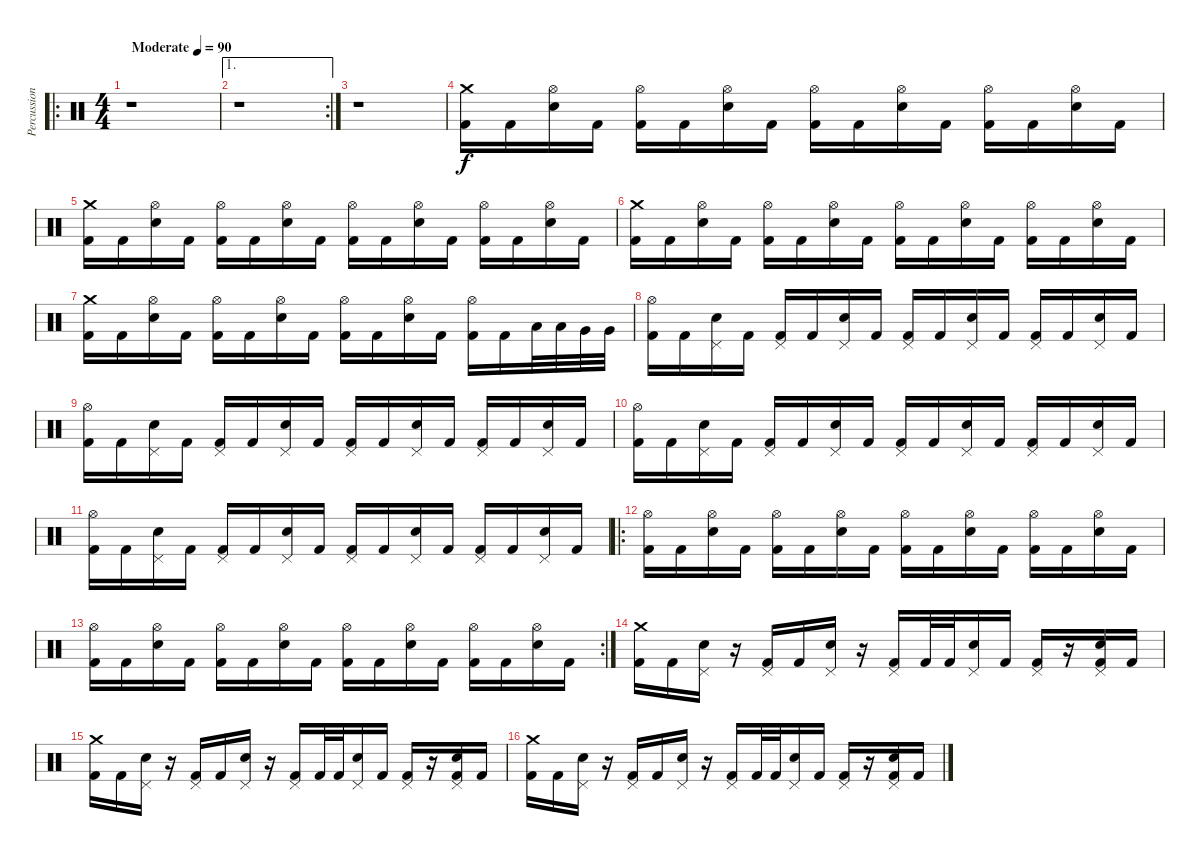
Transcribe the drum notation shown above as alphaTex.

\track ("Percussion" "Percussion") {instrument percussion}
\staff {score}
\articulation defaults
\ro
\ts (4 4)
\tempo (90 "Moderate")
\clef neutral
\ks c
r.1{dy f} |
\ae 1
\rc 2
r.1 |
r.1 |
("Crash medium (hit)" "Kick (hit) 2").16 "Kick (hit) 2".16 ("Hi-Hat (open)" "Electric Snare (hit)").16 "Kick (hit) 2".16 ("Hi-Hat (open)" "Kick (hit) 2").16 "Kick (hit) 2".16 ("Hi-Hat (open)" "Electric Snare (hit)").16 "Kick (hit) 2".16 ("Hi-Hat (open)" "Kick (hit) 2").16 "Kick (hit) 2".16 ("Hi-Hat (open)" "Electric Snare (hit)").16 "Kick (hit) 2".16 ("Hi-Hat (open)" "Kick (hit) 2").16 "Kick (hit) 2".16 ("Hi-Hat (open)" "Electric Snare (hit)").16 "Kick (hit) 2".16 |
("Crash medium (hit)" "Kick (hit) 2").16 "Kick (hit) 2".16 ("Hi-Hat (open)" "Electric Snare (hit)").16 "Kick (hit) 2".16 ("Hi-Hat (open)" "Kick (hit) 2").16 "Kick (hit) 2".16 ("Hi-Hat (open)" "Electric Snare (hit)").16 "Kick (hit) 2".16 ("Hi-Hat (open)" "Kick (hit) 2").16 "Kick (hit) 2".16 ("Hi-Hat (open)" "Electric Snare (hit)").16 "Kick (hit) 2".16 ("Hi-Hat (open)" "Kick (hit) 2").16 "Kick (hit) 2".16 ("Hi-Hat (open)" "Electric Snare (hit)").16 "Kick (hit) 2".16 |
("Crash medium (hit)" "Kick (hit) 2").16 "Kick (hit) 2".16 ("Hi-Hat (open)" "Electric Snare (hit)").16 "Kick (hit) 2".16 ("Hi-Hat (open)" "Kick (hit) 2").16 "Kick (hit) 2".16 ("Hi-Hat (open)" "Electric Snare (hit)").16 "Kick (hit) 2".16 ("Hi-Hat (open)" "Kick (hit) 2").16 "Kick (hit) 2".16 ("Hi-Hat (open)" "Electric Snare (hit)").16 "Kick (hit) 2".16 ("Hi-Hat (open)" "Kick (hit) 2").16 "Kick (hit) 2".16 ("Hi-Hat (open)" "Electric Snare (hit)").16 "Kick (hit) 2".16 |
("Crash medium (hit)" "Kick (hit) 2").16 "Kick (hit) 2".16 ("Hi-Hat (open)" "Electric Snare (hit)").16 "Kick (hit) 2".16 ("Hi-Hat (open)" "Kick (hit) 2").16 "Kick (hit) 2".16 ("Hi-Hat (open)" "Electric Snare (hit)").16 "Kick (hit) 2".16 ("Hi-Hat (open)" "Kick (hit) 2").16 "Kick (hit) 2".16 ("Hi-Hat (open)" "Electric Snare (hit)").16 "Kick (hit) 2".16 ("Hi-Hat (open)" "Kick (hit) 2").16 "Kick (hit) 2".16 "Low Tom (hit)".32 "Low Tom (hit)".32 "Very Low Tom (hit)".32 "Very Low Tom (hit)".32 |
("Hi-Hat (open)" "Kick (hit) 2").16 "Kick (hit) 2".16 ("Pedal Hi-Hat (hit)" "Electric Snare (hit)").16 "Kick (hit) 2".16 ("Pedal Hi-Hat (hit)" "Kick (hit) 2").16 "Kick (hit) 2".16 ("Pedal Hi-Hat (hit)" "Electric Snare (hit)").16 "Kick (hit) 2".16 ("Pedal Hi-Hat (hit)" "Kick (hit) 2").16 "Kick (hit) 2".16 ("Pedal Hi-Hat (hit)" "Electric Snare (hit)").16 "Kick (hit) 2".16 ("Pedal Hi-Hat (hit)" "Kick (hit) 2").16 "Kick (hit) 2".16 ("Pedal Hi-Hat (hit)" "Electric Snare (hit)").16 "Kick (hit) 2".16 |
("Hi-Hat (open)" "Kick (hit) 2").16 "Kick (hit) 2".16 ("Pedal Hi-Hat (hit)" "Electric Snare (hit)").16 "Kick (hit) 2".16 ("Pedal Hi-Hat (hit)" "Kick (hit) 2").16 "Kick (hit) 2".16 ("Pedal Hi-Hat (hit)" "Electric Snare (hit)").16 "Kick (hit) 2".16 ("Pedal Hi-Hat (hit)" "Kick (hit) 2").16 "Kick (hit) 2".16 ("Pedal Hi-Hat (hit)" "Electric Snare (hit)").16 "Kick (hit) 2".16 ("Pedal Hi-Hat (hit)" "Kick (hit) 2").16 "Kick (hit) 2".16 ("Pedal Hi-Hat (hit)" "Electric Snare (hit)").16 "Kick (hit) 2".16 |
("Hi-Hat (open)" "Kick (hit) 2").16 "Kick (hit) 2".16 ("Pedal Hi-Hat (hit)" "Electric Snare (hit)").16 "Kick (hit) 2".16 ("Pedal Hi-Hat (hit)" "Kick (hit) 2").16 "Kick (hit) 2".16 ("Pedal Hi-Hat (hit)" "Electric Snare (hit)").16 "Kick (hit) 2".16 ("Pedal Hi-Hat (hit)" "Kick (hit) 2").16 "Kick (hit) 2".16 ("Pedal Hi-Hat (hit)" "Electric Snare (hit)").16 "Kick (hit) 2".16 ("Pedal Hi-Hat (hit)" "Kick (hit) 2").16 "Kick (hit) 2".16 ("Pedal Hi-Hat (hit)" "Electric Snare (hit)").16 "Kick (hit) 2".16 |
("Hi-Hat (open)" "Kick (hit) 2").16 "Kick (hit) 2".16 ("Pedal Hi-Hat (hit)" "Electric Snare (hit)").16 "Kick (hit) 2".16 ("Pedal Hi-Hat (hit)" "Kick (hit) 2").16 "Kick (hit) 2".16 ("Pedal Hi-Hat (hit)" "Electric Snare (hit)").16 "Kick (hit) 2".16 ("Pedal Hi-Hat (hit)" "Kick (hit) 2").16 "Kick (hit) 2".16 ("Pedal Hi-Hat (hit)" "Electric Snare (hit)").16 "Kick (hit) 2".16 ("Pedal Hi-Hat (hit)" "Kick (hit) 2").16 "Kick (hit) 2".16 ("Pedal Hi-Hat (hit)" "Electric Snare (hit)").16 "Kick (hit) 2".16 |
\ro
("Hi-Hat (open)" "Kick (hit) 2").16 "Kick (hit) 2".16 ("Hi-Hat (open)" "Electric Snare (hit)").16 "Kick (hit) 2".16 ("Hi-Hat (open)" "Kick (hit) 2").16 "Kick (hit) 2".16 ("Hi-Hat (open)" "Electric Snare (hit)").16 "Kick (hit) 2".16 ("Hi-Hat (open)" "Kick (hit) 2").16 "Kick (hit) 2".16 ("Hi-Hat (open)" "Electric Snare (hit)").16 "Kick (hit) 2".16 ("Hi-Hat (open)" "Kick (hit) 2").16 "Kick (hit) 2".16 ("Hi-Hat (open)" "Electric Snare (hit)").16 "Kick (hit) 2".16 |
\rc 2
("Hi-Hat (open)" "Kick (hit) 2").16 "Kick (hit) 2".16 ("Hi-Hat (open)" "Electric Snare (hit)").16 "Kick (hit) 2".16 ("Hi-Hat (open)" "Kick (hit) 2").16 "Kick (hit) 2".16 ("Hi-Hat (open)" "Electric Snare (hit)").16 "Kick (hit) 2".16 ("Hi-Hat (open)" "Kick (hit) 2").16 "Kick (hit) 2".16 ("Hi-Hat (open)" "Electric Snare (hit)").16 "Kick (hit) 2".16 ("Hi-Hat (open)" "Kick (hit) 2").16 "Kick (hit) 2".16 ("Hi-Hat (open)" "Electric Snare (hit)").16 "Kick (hit) 2".16 |
("Crash medium (hit)" "Kick (hit) 2").16 "Kick (hit) 2".16 ("Pedal Hi-Hat (hit)" "Electric Snare (hit)").16 r.16 ("Pedal Hi-Hat (hit)" "Kick (hit) 2").16 "Kick (hit) 2".16 ("Pedal Hi-Hat (hit)" "Electric Snare (hit)").16 r.16 ("Pedal Hi-Hat (hit)" "Kick (hit) 2").16 "Kick (hit) 2".32 "Kick (hit) 2".32 ("Pedal Hi-Hat (hit)" "Electric Snare (hit)").16 "Kick (hit) 2".16 ("Pedal Hi-Hat (hit)" "Kick (hit) 2").16 r.16 ("Pedal Hi-Hat (hit)" "Electric Snare (hit)" "Kick (hit) 2").16 "Kick (hit) 2".16 |
("Crash medium (hit)" "Kick (hit) 2").16 "Kick (hit) 2".16 ("Pedal Hi-Hat (hit)" "Electric Snare (hit)").16 r.16 ("Pedal Hi-Hat (hit)" "Kick (hit) 2").16 "Kick (hit) 2".16 ("Pedal Hi-Hat (hit)" "Electric Snare (hit)").16 r.16 ("Pedal Hi-Hat (hit)" "Kick (hit) 2").16 "Kick (hit) 2".32 "Kick (hit) 2".32 ("Pedal Hi-Hat (hit)" "Electric Snare (hit)").16 "Kick (hit) 2".16 ("Pedal Hi-Hat (hit)" "Kick (hit) 2").16 r.16 ("Pedal Hi-Hat (hit)" "Electric Snare (hit)" "Kick (hit) 2").16 "Kick (hit) 2".16 |
("Crash medium (hit)" "Kick (hit) 2").16 "Kick (hit) 2".16 ("Pedal Hi-Hat (hit)" "Electric Snare (hit)").16 r.16 ("Pedal Hi-Hat (hit)" "Kick (hit) 2").16 "Kick (hit) 2".16 ("Pedal Hi-Hat (hit)" "Electric Snare (hit)").16 r.16 ("Pedal Hi-Hat (hit)" "Kick (hit) 2").16 "Kick (hit) 2".32 "Kick (hit) 2".32 ("Pedal Hi-Hat (hit)" "Electric Snare (hit)").16 "Kick (hit) 2".16 ("Pedal Hi-Hat (hit)" "Kick (hit) 2").16 r.16 ("Pedal Hi-Hat (hit)" "Electric Snare (hit)" "Kick (hit) 2").16 "Kick (hit) 2".16
